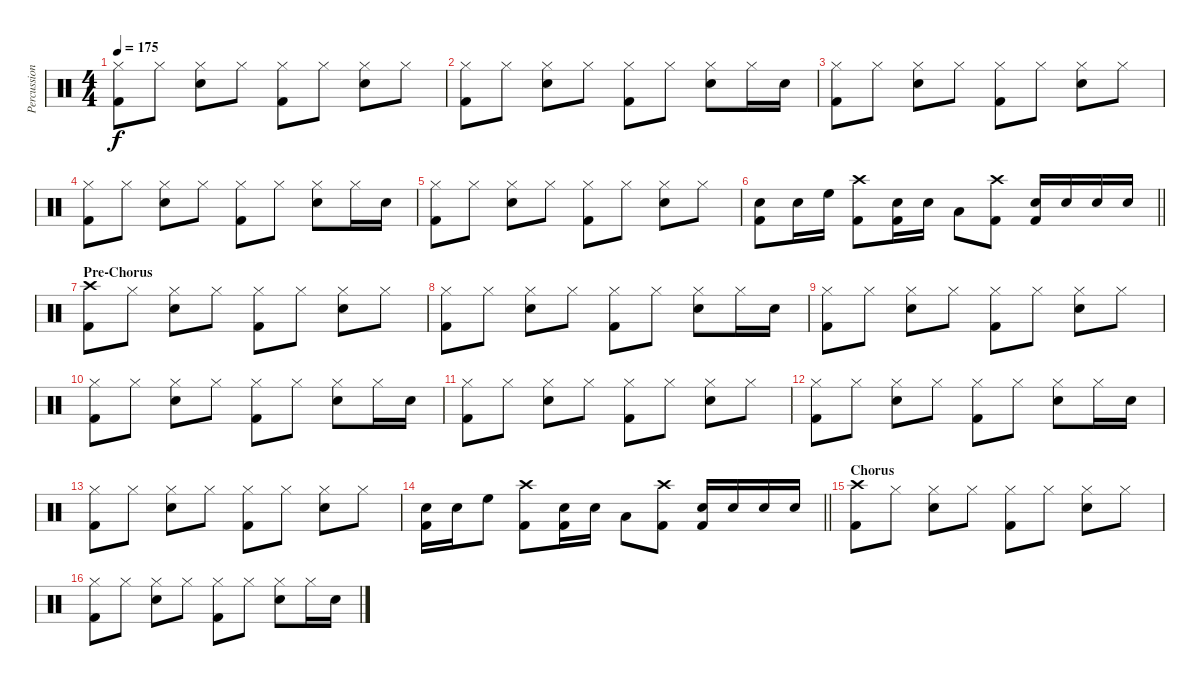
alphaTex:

\track ("Percussion" "Percussion") {instrument percussion}
\staff {score}
\articulation defaults
\ts (4 4)
\tempo 175
\clef neutral
\ks c
("Hi-Hat (closed)" "Kick (hit) 2").8{dy f} "Hi-Hat (closed)".8 ("Hi-Hat (closed)" "Snare (hit) 2").8 "Hi-Hat (closed)".8 ("Hi-Hat (closed)" "Kick (hit) 2").8 "Hi-Hat (closed)".8 ("Hi-Hat (closed)" "Snare (hit) 2").8 "Hi-Hat (closed)".8 |
("Hi-Hat (closed)" "Kick (hit) 2").8 "Hi-Hat (closed)".8 ("Hi-Hat (closed)" "Snare (hit) 2").8 "Hi-Hat (closed)".8 ("Hi-Hat (closed)" "Kick (hit) 2").8 "Hi-Hat (closed)".8 ("Hi-Hat (closed)" "Snare (hit) 2").8 "Hi-Hat (closed)".16 "Snare (hit) 2".16 |
("Hi-Hat (closed)" "Kick (hit) 2").8 "Hi-Hat (closed)".8 ("Hi-Hat (closed)" "Snare (hit) 2").8 "Hi-Hat (closed)".8 ("Hi-Hat (closed)" "Kick (hit) 2").8 "Hi-Hat (closed)".8 ("Hi-Hat (closed)" "Snare (hit) 2").8 "Hi-Hat (closed)".8 |
("Hi-Hat (closed)" "Kick (hit) 2").8 "Hi-Hat (closed)".8 ("Hi-Hat (closed)" "Snare (hit) 2").8 "Hi-Hat (closed)".8 ("Hi-Hat (closed)" "Kick (hit) 2").8 "Hi-Hat (closed)".8 ("Hi-Hat (closed)" "Snare (hit) 2").8 "Hi-Hat (closed)".16 "Snare (hit) 2".16 |
("Hi-Hat (closed)" "Kick (hit) 2").8 "Hi-Hat (closed)".8 ("Hi-Hat (closed)" "Snare (hit) 2").8 "Hi-Hat (closed)".8 ("Hi-Hat (closed)" "Kick (hit) 2").8 "Hi-Hat (closed)".8 ("Hi-Hat (closed)" "Snare (hit) 2").8 "Hi-Hat (closed)".8 |
\barLineRight lightlight
("Snare (hit) 2" "Kick (hit) 2").8 "Snare (hit) 2".16 "High Floor Tom (hit)".16 ("Crash high (hit)" "Kick (hit) 2").8 ("Snare (hit) 2" "Kick (hit) 2").16 "Snare (hit) 2".16 "Low Floor Tom (hit)".8 ("Crash high (hit)" "Kick (hit) 2").8 ("Snare (hit) 2" "Kick (hit) 2").16 "Snare (hit) 2".16 "Snare (hit) 2".16 "Snare (hit) 2".16 |
\section ("" "Pre-Chorus")
("Crash high (hit)" "Kick (hit) 2").8 "Hi-Hat (closed)".8 ("Hi-Hat (closed)" "Snare (hit) 2").8 "Hi-Hat (closed)".8 ("Hi-Hat (closed)" "Kick (hit) 2").8 "Hi-Hat (closed)".8 ("Hi-Hat (closed)" "Snare (hit) 2").8 "Hi-Hat (closed)".8 |
("Hi-Hat (closed)" "Kick (hit) 2").8 "Hi-Hat (closed)".8 ("Hi-Hat (closed)" "Snare (hit) 2").8 "Hi-Hat (closed)".8 ("Hi-Hat (closed)" "Kick (hit) 2").8 "Hi-Hat (closed)".8 ("Hi-Hat (closed)" "Snare (hit) 2").8 "Hi-Hat (closed)".16 "Snare (hit) 2".16 |
("Hi-Hat (closed)" "Kick (hit) 2").8 "Hi-Hat (closed)".8 ("Hi-Hat (closed)" "Snare (hit) 2").8 "Hi-Hat (closed)".8 ("Hi-Hat (closed)" "Kick (hit) 2").8 "Hi-Hat (closed)".8 ("Hi-Hat (closed)" "Snare (hit) 2").8 "Hi-Hat (closed)".8 |
("Hi-Hat (closed)" "Kick (hit) 2").8 "Hi-Hat (closed)".8 ("Hi-Hat (closed)" "Snare (hit) 2").8 "Hi-Hat (closed)".8 ("Hi-Hat (closed)" "Kick (hit) 2").8 "Hi-Hat (closed)".8 ("Hi-Hat (closed)" "Snare (hit) 2").8 "Hi-Hat (closed)".16 "Snare (hit) 2".16 |
("Hi-Hat (closed)" "Kick (hit) 2").8 "Hi-Hat (closed)".8 ("Hi-Hat (closed)" "Snare (hit) 2").8 "Hi-Hat (closed)".8 ("Hi-Hat (closed)" "Kick (hit) 2").8 "Hi-Hat (closed)".8 ("Hi-Hat (closed)" "Snare (hit) 2").8 "Hi-Hat (closed)".8 |
("Hi-Hat (closed)" "Kick (hit) 2").8 "Hi-Hat (closed)".8 ("Hi-Hat (closed)" "Snare (hit) 2").8 "Hi-Hat (closed)".8 ("Hi-Hat (closed)" "Kick (hit) 2").8 "Hi-Hat (closed)".8 ("Hi-Hat (closed)" "Snare (hit) 2").8 "Hi-Hat (closed)".16 "Snare (hit) 2".16 |
("Hi-Hat (closed)" "Kick (hit) 2").8 "Hi-Hat (closed)".8 ("Hi-Hat (closed)" "Snare (hit) 2").8 "Hi-Hat (closed)".8 ("Hi-Hat (closed)" "Kick (hit) 2").8 "Hi-Hat (closed)".8 ("Hi-Hat (closed)" "Snare (hit) 2").8 "Hi-Hat (closed)".8 |
\barLineRight lightlight
("Snare (hit) 2" "Kick (hit) 2").16 "Snare (hit) 2".16 "High Floor Tom (hit)".8 ("Crash high (hit)" "Kick (hit) 2").8 ("Snare (hit) 2" "Kick (hit) 2").16 "Snare (hit) 2".16 "Low Floor Tom (hit)".8 ("Crash high (hit)" "Kick (hit) 2").8 ("Snare (hit) 2" "Kick (hit) 2").16 "Snare (hit) 2".16 "Snare (hit) 2".16 "Snare (hit) 2".16 |
\section ("" "Chorus")
("Crash high (hit)" "Kick (hit) 2").8 "Hi-Hat (closed)".8 ("Hi-Hat (closed)" "Snare (hit) 2").8 "Hi-Hat (closed)".8 ("Hi-Hat (closed)" "Kick (hit) 2").8 "Hi-Hat (closed)".8 ("Hi-Hat (closed)" "Snare (hit) 2").8 "Hi-Hat (closed)".8 |
("Hi-Hat (closed)" "Kick (hit) 2").8 "Hi-Hat (closed)".8 ("Hi-Hat (closed)" "Snare (hit) 2").8 "Hi-Hat (closed)".8 ("Hi-Hat (closed)" "Kick (hit) 2").8 "Hi-Hat (closed)".8 ("Hi-Hat (closed)" "Snare (hit) 2").8 "Hi-Hat (closed)".16 "Snare (hit) 2".16
